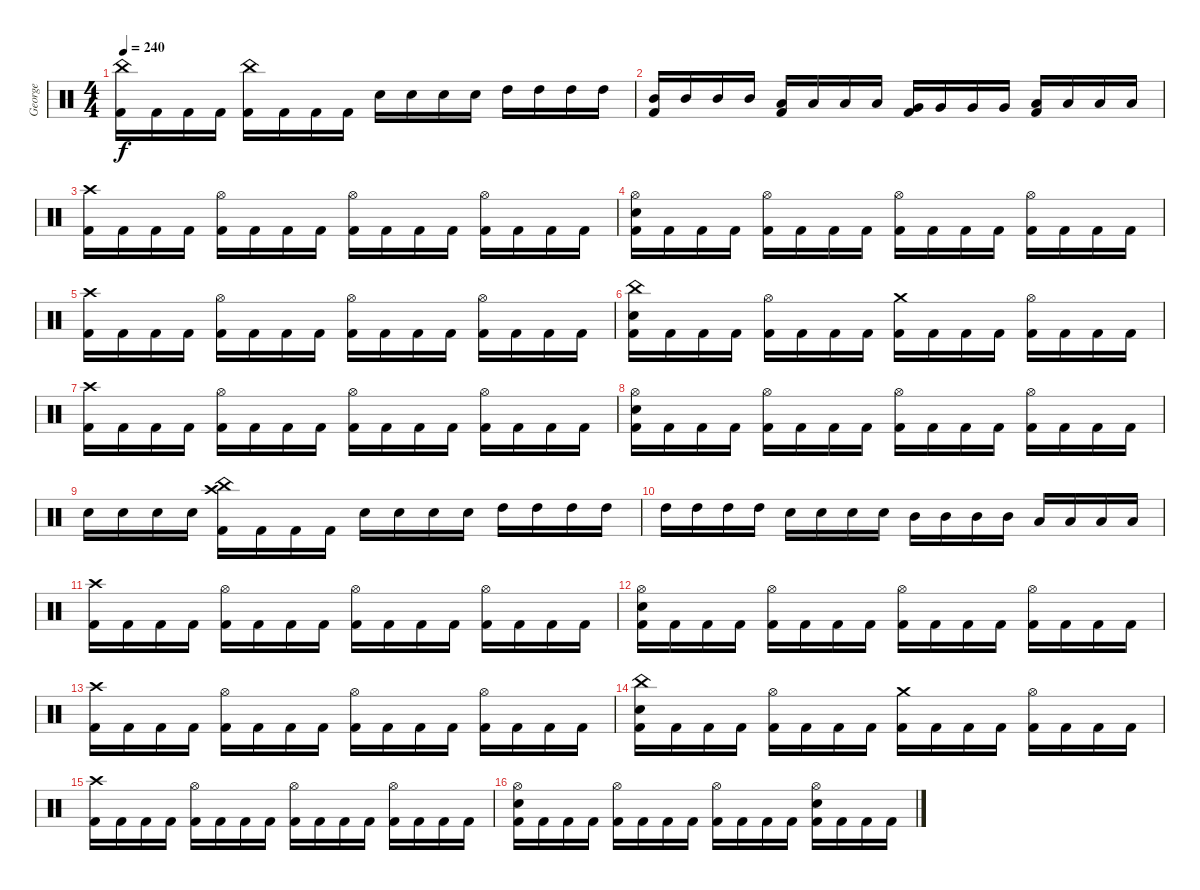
\track ("George" "George") {instrument percussion}
\staff {score}
\articulation defaults
\ts (4 4)
\tempo 240
\clef neutral
\ks c
("China (hit)" "Kick (hit) 2").16{dy f} "Kick (hit) 2".16 "Kick (hit) 2".16 "Kick (hit) 2".16 ("China (hit)" "Kick (hit) 2").16 "Kick (hit) 2".16 "Kick (hit) 2".16 "Kick (hit) 2".16 "Snare (hit) 2".16 "Snare (hit) 2".16 "Snare (hit) 2".16 "Snare (hit) 2".16 "High Tom (hit)".16 "High Tom (hit)".16 "High Tom (hit)".16 "High Tom (hit)".16 |
("Mid Tom (hit)" "Kick (hit) 2").16 "Mid Tom (hit)".16 "Mid Tom (hit)".16 "Mid Tom (hit)".16 ("Low Tom (hit)" "Kick (hit) 2").16 "Low Tom (hit)".16 "Low Tom (hit)".16 "Low Tom (hit)".16 ("Very Low Tom (hit)" "Kick (hit) 2").16 "Very Low Tom (hit)".16 "Very Low Tom (hit)".16 "Very Low Tom (hit)".16 ("Low Floor Tom (hit)" "Kick (hit) 2").16 "Low Floor Tom (hit)".16 "Low Floor Tom (hit)".16 "Low Floor Tom (hit)".16 |
("Crash high (hit)" "Kick (hit) 2").16 "Kick (hit) 2".16 "Kick (hit) 2".16 "Kick (hit) 2".16 ("Hi-Hat (open)" "Kick (hit) 2").16 "Kick (hit) 2".16 "Kick (hit) 2".16 "Kick (hit) 2".16 ("Hi-Hat (open)" "Kick (hit) 2").16 "Kick (hit) 2".16 "Kick (hit) 2".16 "Kick (hit) 2".16 ("Hi-Hat (open)" "Kick (hit) 2").16 "Kick (hit) 2".16 "Kick (hit) 2".16 "Kick (hit) 2".16 |
("Hi-Hat (open)" "Snare (hit) 2" "Kick (hit) 2").16 "Kick (hit) 2".16 "Kick (hit) 2".16 "Kick (hit) 2".16 ("Hi-Hat (open)" "Kick (hit) 2").16 "Kick (hit) 2".16 "Kick (hit) 2".16 "Kick (hit) 2".16 ("Hi-Hat (open)" "Kick (hit) 2").16 "Kick (hit) 2".16 "Kick (hit) 2".16 "Kick (hit) 2".16 ("Hi-Hat (open)" "Kick (hit) 2").16 "Kick (hit) 2".16 "Kick (hit) 2".16 "Kick (hit) 2".16 |
("Crash high (hit)" "Kick (hit) 2").16 "Kick (hit) 2".16 "Kick (hit) 2".16 "Kick (hit) 2".16 ("Hi-Hat (open)" "Kick (hit) 2").16 "Kick (hit) 2".16 "Kick (hit) 2".16 "Kick (hit) 2".16 ("Hi-Hat (open)" "Kick (hit) 2").16 "Kick (hit) 2".16 "Kick (hit) 2".16 "Kick (hit) 2".16 ("Hi-Hat (open)" "Kick (hit) 2").16 "Kick (hit) 2".16 "Kick (hit) 2".16 "Kick (hit) 2".16 |
("China (hit)" "Snare (hit) 2" "Kick (hit) 2").16 "Kick (hit) 2".16 "Kick (hit) 2".16 "Kick (hit) 2".16 ("Hi-Hat (open)" "Kick (hit) 2").16 "Kick (hit) 2".16 "Kick (hit) 2".16 "Kick (hit) 2".16 ("Crash medium (hit)" "Kick (hit) 2").16 "Kick (hit) 2".16 "Kick (hit) 2".16 "Kick (hit) 2".16 ("Hi-Hat (open)" "Kick (hit) 2").16 "Kick (hit) 2".16 "Kick (hit) 2".16 "Kick (hit) 2".16 |
("Crash high (hit)" "Kick (hit) 2").16 "Kick (hit) 2".16 "Kick (hit) 2".16 "Kick (hit) 2".16 ("Hi-Hat (open)" "Kick (hit) 2").16 "Kick (hit) 2".16 "Kick (hit) 2".16 "Kick (hit) 2".16 ("Hi-Hat (open)" "Kick (hit) 2").16 "Kick (hit) 2".16 "Kick (hit) 2".16 "Kick (hit) 2".16 ("Hi-Hat (open)" "Kick (hit) 2").16 "Kick (hit) 2".16 "Kick (hit) 2".16 "Kick (hit) 2".16 |
("Hi-Hat (open)" "Snare (hit) 2" "Kick (hit) 2").16 "Kick (hit) 2".16 "Kick (hit) 2".16 "Kick (hit) 2".16 ("Hi-Hat (open)" "Kick (hit) 2").16 "Kick (hit) 2".16 "Kick (hit) 2".16 "Kick (hit) 2".16 ("Hi-Hat (open)" "Kick (hit) 2").16 "Kick (hit) 2".16 "Kick (hit) 2".16 "Kick (hit) 2".16 ("Hi-Hat (open)" "Kick (hit) 2").16 "Kick (hit) 2".16 "Kick (hit) 2".16 "Kick (hit) 2".16 |
"Snare (hit) 2".16 "Snare (hit) 2".16 "Snare (hit) 2".16 "Snare (hit) 2".16 ("Crash high (hit)" "China (hit)" "Kick (hit) 2").16 "Kick (hit) 2".16 "Kick (hit) 2".16 "Kick (hit) 2".16 "Snare (hit) 2".16 "Snare (hit) 2".16 "Snare (hit) 2".16 "Snare (hit) 2".16 "High Tom (hit)".16 "High Tom (hit)".16 "High Tom (hit)".16 "High Tom (hit)".16 |
"High Tom (hit)".16 "High Tom (hit)".16 "High Tom (hit)".16 "High Tom (hit)".16 "Snare (hit) 2".16 "Snare (hit) 2".16 "Snare (hit) 2".16 "Snare (hit) 2".16 "Mid Tom (hit)".16 "Mid Tom (hit)".16 "Mid Tom (hit)".16 "Mid Tom (hit)".16 "Low Tom (hit)".16 "Low Tom (hit)".16 "Low Tom (hit)".16 "Low Tom (hit)".16 |
("Crash high (hit)" "Kick (hit) 2").16 "Kick (hit) 2".16 "Kick (hit) 2".16 "Kick (hit) 2".16 ("Hi-Hat (open)" "Kick (hit) 2").16 "Kick (hit) 2".16 "Kick (hit) 2".16 "Kick (hit) 2".16 ("Hi-Hat (open)" "Kick (hit) 2").16 "Kick (hit) 2".16 "Kick (hit) 2".16 "Kick (hit) 2".16 ("Hi-Hat (open)" "Kick (hit) 2").16 "Kick (hit) 2".16 "Kick (hit) 2".16 "Kick (hit) 2".16 |
("Hi-Hat (open)" "Snare (hit) 2" "Kick (hit) 2").16 "Kick (hit) 2".16 "Kick (hit) 2".16 "Kick (hit) 2".16 ("Hi-Hat (open)" "Kick (hit) 2").16 "Kick (hit) 2".16 "Kick (hit) 2".16 "Kick (hit) 2".16 ("Hi-Hat (open)" "Kick (hit) 2").16 "Kick (hit) 2".16 "Kick (hit) 2".16 "Kick (hit) 2".16 ("Hi-Hat (open)" "Kick (hit) 2").16 "Kick (hit) 2".16 "Kick (hit) 2".16 "Kick (hit) 2".16 |
("Crash high (hit)" "Kick (hit) 2").16 "Kick (hit) 2".16 "Kick (hit) 2".16 "Kick (hit) 2".16 ("Hi-Hat (open)" "Kick (hit) 2").16 "Kick (hit) 2".16 "Kick (hit) 2".16 "Kick (hit) 2".16 ("Hi-Hat (open)" "Kick (hit) 2").16 "Kick (hit) 2".16 "Kick (hit) 2".16 "Kick (hit) 2".16 ("Hi-Hat (open)" "Kick (hit) 2").16 "Kick (hit) 2".16 "Kick (hit) 2".16 "Kick (hit) 2".16 |
("China (hit)" "Snare (hit) 2" "Kick (hit) 2").16 "Kick (hit) 2".16 "Kick (hit) 2".16 "Kick (hit) 2".16 ("Hi-Hat (open)" "Kick (hit) 2").16 "Kick (hit) 2".16 "Kick (hit) 2".16 "Kick (hit) 2".16 ("Crash medium (hit)" "Kick (hit) 2").16 "Kick (hit) 2".16 "Kick (hit) 2".16 "Kick (hit) 2".16 ("Hi-Hat (open)" "Kick (hit) 2").16 "Kick (hit) 2".16 "Kick (hit) 2".16 "Kick (hit) 2".16 |
("Crash high (hit)" "Kick (hit) 2").16 "Kick (hit) 2".16 "Kick (hit) 2".16 "Kick (hit) 2".16 ("Hi-Hat (open)" "Kick (hit) 2").16 "Kick (hit) 2".16 "Kick (hit) 2".16 "Kick (hit) 2".16 ("Hi-Hat (open)" "Kick (hit) 2").16 "Kick (hit) 2".16 "Kick (hit) 2".16 "Kick (hit) 2".16 ("Hi-Hat (open)" "Kick (hit) 2").16 "Kick (hit) 2".16 "Kick (hit) 2".16 "Kick (hit) 2".16 |
("Hi-Hat (open)" "Snare (hit) 2" "Kick (hit) 2").16 "Kick (hit) 2".16 "Kick (hit) 2".16 "Kick (hit) 2".16 ("Hi-Hat (open)" "Kick (hit) 2").16 "Kick (hit) 2".16 "Kick (hit) 2".16 "Kick (hit) 2".16 ("Hi-Hat (open)" "Kick (hit) 2").16 "Kick (hit) 2".16 "Kick (hit) 2".16 "Kick (hit) 2".16 ("Hi-Hat (open)" "Snare (hit) 2" "Kick (hit) 2").16 "Kick (hit) 2".16 "Kick (hit) 2".16 "Kick (hit) 2".16
